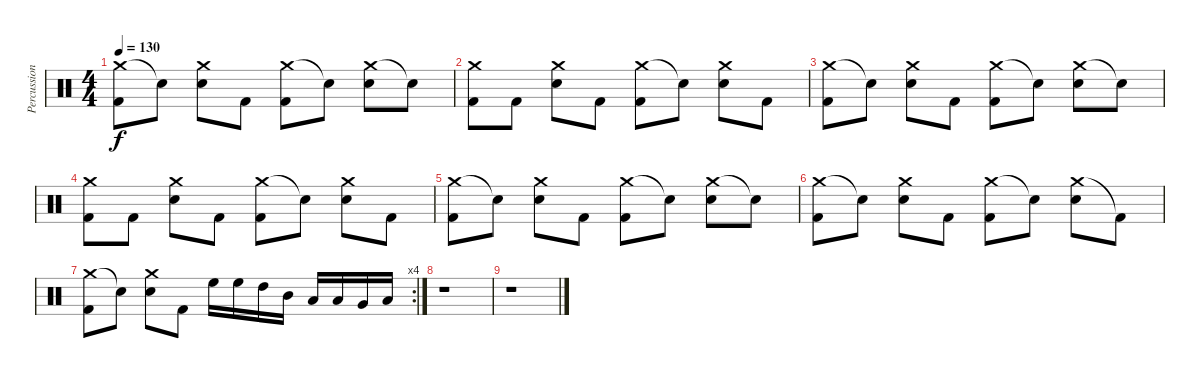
\track ("Percussion" "Percussion") {instrument percussion}
\staff {score}
\articulation defaults
\ts (4 4)
\tempo 130
\clef neutral
\ks c
("Crash medium (hit)" "Kick (hit) 2").8{dy f} "Snare (hit)"{t}.8 ("Crash medium (hit)" "Electric Snare (hit)").8 "Kick (hit) 2".8 ("Crash medium (hit)" "Kick (hit) 2").8 "Snare (hit)"{t}.8 ("Crash medium (hit)" "Electric Snare (hit)").8 "Snare (hit)"{t}.8 |
("Crash medium (hit)" "Kick (hit) 2").8 "Kick (hit) 2".8 ("Crash medium (hit)" "Electric Snare (hit)").8 "Kick (hit) 2".8 ("Crash medium (hit)" "Kick (hit) 2").8 "Snare (hit)"{t}.8 ("Crash medium (hit)" "Electric Snare (hit)").8 "Kick (hit) 2".8 |
("Crash medium (hit)" "Kick (hit) 2").8 "Snare (hit)"{t}.8 ("Crash medium (hit)" "Electric Snare (hit)").8 "Kick (hit) 2".8 ("Crash medium (hit)" "Kick (hit) 2").8 "Snare (hit)"{t}.8 ("Crash medium (hit)" "Electric Snare (hit)").8 "Snare (hit)"{t}.8 |
("Crash medium (hit)" "Kick (hit) 2").8 "Kick (hit) 2".8 ("Crash medium (hit)" "Electric Snare (hit)").8 "Kick (hit) 2".8 ("Crash medium (hit)" "Kick (hit) 2").8 "Snare (hit)"{t}.8 ("Crash medium (hit)" "Electric Snare (hit)").8 "Kick (hit) 2".8 |
("Crash medium (hit)" "Kick (hit) 2").8 "Snare (hit)"{t}.8 ("Crash medium (hit)" "Electric Snare (hit)").8 "Kick (hit) 2".8 ("Crash medium (hit)" "Kick (hit) 2").8 "Snare (hit)"{t}.8 ("Crash medium (hit)" "Electric Snare (hit)").8 "Snare (hit)"{t}.8 |
("Crash medium (hit)" "Kick (hit) 2").8 "Snare (hit)"{t}.8 ("Crash medium (hit)" "Electric Snare (hit)").8 "Kick (hit) 2".8 ("Crash medium (hit)" "Kick (hit) 2").8 "Snare (hit)"{t}.8 ("Crash medium (hit)" "Electric Snare (hit)").8 "Kick (hit) 2"{t}.8 |
\rc 4
("Crash medium (hit)" "Kick (hit) 2").8 "Electric Snare (hit)"{t}.8 ("Crash medium (hit)" "Electric Snare (hit)").8 "Kick (hit) 2".8 "High Floor Tom (hit)".16 "High Floor Tom (hit)".16 "High Tom (hit)".16 "Mid Tom (hit)".16 "Low Tom (hit)".16 "Low Tom (hit)".16 "Very Low Tom (hit)".16 "Low Floor Tom (hit)".16 |
r.1 |
r.1
